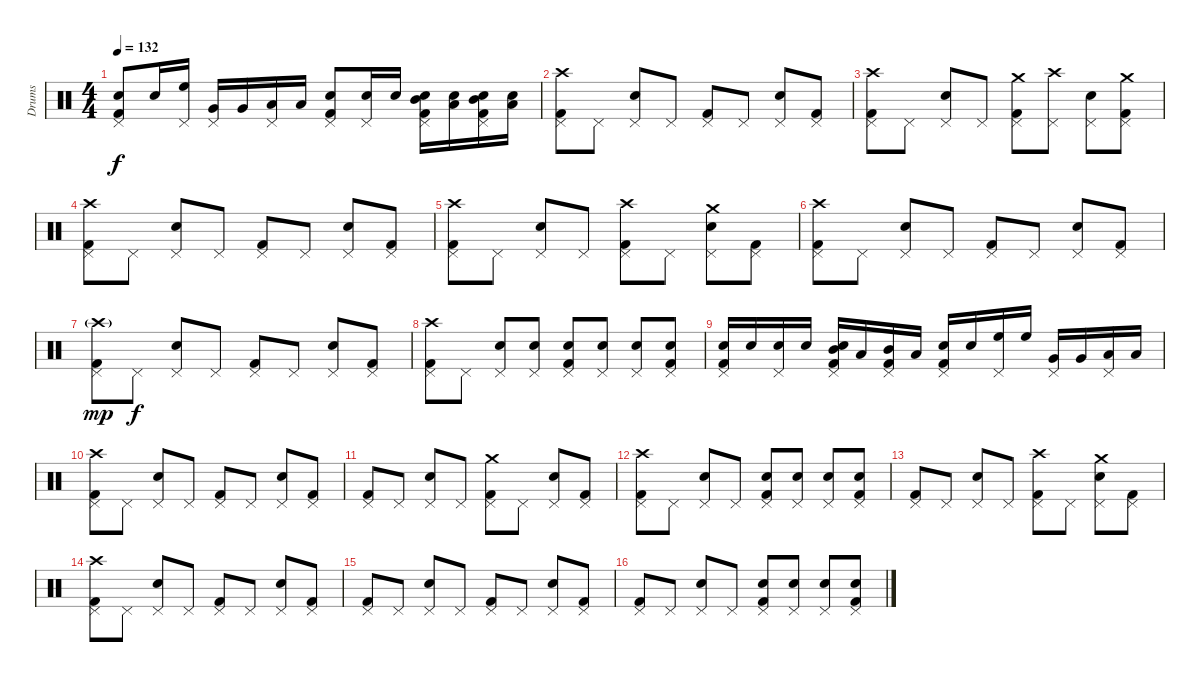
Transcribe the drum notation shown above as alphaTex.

\track ("Drums" "Drums") {instrument percussion}
\staff {score}
\articulation defaults
\ts (4 4)
\tempo 132
\clef neutral
\ks c
("Electric Snare (hit)" "Pedal Hi-Hat (hit)" "Kick (hit) 2").8{dy f} "Electric Snare (hit)".16 ("High Floor Tom (hit)" "Pedal Hi-Hat (hit)").16 ("Very Low Tom (hit)" "Pedal Hi-Hat (hit)").16 "Very Low Tom (hit)".16 ("Low Tom (hit)" "Pedal Hi-Hat (hit)").16 "Low Tom (hit)".16 ("Electric Snare (hit)" "Pedal Hi-Hat (hit)" "Kick (hit) 2").8 ("Electric Snare (hit)" "Pedal Hi-Hat (hit)").16 "Electric Snare (hit)".16 ("Electric Snare (hit)" "Mid Tom (hit)" "Pedal Hi-Hat (hit)" "Kick (hit) 2").16 ("Electric Snare (hit)" "Low Floor Tom (hit)").16 ("Electric Snare (hit)" "Mid Tom (hit)" "Pedal Hi-Hat (hit)" "Kick (hit) 2").16 ("Electric Snare (hit)" "Low Floor Tom (hit)").16 |
("Pedal Hi-Hat (hit)" "Kick (hit) 2" "Crash high (hit)").8 "Pedal Hi-Hat (hit)".8 ("Electric Snare (hit)" "Pedal Hi-Hat (hit)").8 "Pedal Hi-Hat (hit)".8 ("Pedal Hi-Hat (hit)" "Kick (hit) 2").8 "Pedal Hi-Hat (hit)".8 ("Electric Snare (hit)" "Pedal Hi-Hat (hit)").8 ("Pedal Hi-Hat (hit)" "Kick (hit) 2").8 |
("Pedal Hi-Hat (hit)" "Kick (hit) 2" "Crash high (hit)").8 "Pedal Hi-Hat (hit)".8 ("Electric Snare (hit)" "Pedal Hi-Hat (hit)").8 "Pedal Hi-Hat (hit)".8 ("Pedal Hi-Hat (hit)" "Kick (hit) 2" "Crash medium (hit)").8 ("Pedal Hi-Hat (hit)" "Crash high (hit)").8 ("Electric Snare (hit)" "Pedal Hi-Hat (hit)").8 ("Pedal Hi-Hat (hit)" "Kick (hit) 2" "Crash medium (hit)").8 |
("Pedal Hi-Hat (hit)" "Kick (hit) 2" "Crash high (hit)").8 "Pedal Hi-Hat (hit)".8 ("Electric Snare (hit)" "Pedal Hi-Hat (hit)").8 "Pedal Hi-Hat (hit)".8 ("Pedal Hi-Hat (hit)" "Kick (hit) 2").8 "Pedal Hi-Hat (hit)".8 ("Electric Snare (hit)" "Pedal Hi-Hat (hit)").8 ("Pedal Hi-Hat (hit)" "Kick (hit) 2").8 |
("Pedal Hi-Hat (hit)" "Kick (hit) 2" "Crash high (hit)").8 "Pedal Hi-Hat (hit)".8 ("Electric Snare (hit)" "Pedal Hi-Hat (hit)").8 "Pedal Hi-Hat (hit)".8 ("Pedal Hi-Hat (hit)" "Kick (hit) 2" "Crash high (hit)").8 "Pedal Hi-Hat (hit)".8 ("Electric Snare (hit)" "Pedal Hi-Hat (hit)" "Crash medium (hit)").8 ("Pedal Hi-Hat (hit)" "Kick (hit) 2").8 |
("Pedal Hi-Hat (hit)" "Kick (hit) 2" "Crash high (hit)").8 "Pedal Hi-Hat (hit)".8 ("Electric Snare (hit)" "Pedal Hi-Hat (hit)").8 "Pedal Hi-Hat (hit)".8 ("Pedal Hi-Hat (hit)" "Kick (hit) 2").8 "Pedal Hi-Hat (hit)".8 ("Electric Snare (hit)" "Pedal Hi-Hat (hit)").8 ("Pedal Hi-Hat (hit)" "Kick (hit) 2").8 |
("Pedal Hi-Hat (hit)" "Kick (hit) 2" "Crash high (hit)"{g}).8{dy mp} "Pedal Hi-Hat (hit)".8{dy f} ("Electric Snare (hit)" "Pedal Hi-Hat (hit)").8 "Pedal Hi-Hat (hit)".8 ("Pedal Hi-Hat (hit)" "Kick (hit) 2").8 "Pedal Hi-Hat (hit)".8 ("Electric Snare (hit)" "Pedal Hi-Hat (hit)").8 ("Pedal Hi-Hat (hit)" "Kick (hit) 2").8 |
("Pedal Hi-Hat (hit)" "Kick (hit) 2" "Crash high (hit)").8 "Pedal Hi-Hat (hit)".8 ("Electric Snare (hit)" "Pedal Hi-Hat (hit)").8 ("Electric Snare (hit)" "Pedal Hi-Hat (hit)").8 ("Electric Snare (hit)" "Pedal Hi-Hat (hit)" "Kick (hit) 2").8 ("Electric Snare (hit)" "Pedal Hi-Hat (hit)").8 ("Electric Snare (hit)" "Pedal Hi-Hat (hit)").8 ("Electric Snare (hit)" "Pedal Hi-Hat (hit)" "Kick (hit) 2").8 |
("Electric Snare (hit)" "Pedal Hi-Hat (hit)" "Kick (hit) 2").16 "Electric Snare (hit)".16 ("Electric Snare (hit)" "Pedal Hi-Hat (hit)").16 "Electric Snare (hit)".16 ("Electric Snare (hit)" "Mid Tom (hit)" "Pedal Hi-Hat (hit)" "Kick (hit) 2").16 "Low Floor Tom (hit)".16 ("Mid Tom (hit)" "Pedal Hi-Hat (hit)" "Kick (hit) 2").16 "Low Floor Tom (hit)".16 ("Electric Snare (hit)" "Pedal Hi-Hat (hit)" "Kick (hit) 2").16 "Electric Snare (hit)".16 ("High Floor Tom (hit)" "Pedal Hi-Hat (hit)").16 "High Floor Tom (hit)".16 ("Very Low Tom (hit)" "Pedal Hi-Hat (hit)").16 "Very Low Tom (hit)".16 ("Low Tom (hit)" "Pedal Hi-Hat (hit)").16 "Low Tom (hit)".16 |
("Pedal Hi-Hat (hit)" "Kick (hit) 2" "Crash high (hit)").8 "Pedal Hi-Hat (hit)".8 ("Electric Snare (hit)" "Pedal Hi-Hat (hit)").8 "Pedal Hi-Hat (hit)".8 ("Pedal Hi-Hat (hit)" "Kick (hit) 2").8 "Pedal Hi-Hat (hit)".8 ("Electric Snare (hit)" "Pedal Hi-Hat (hit)").8 ("Pedal Hi-Hat (hit)" "Kick (hit) 2").8 |
("Pedal Hi-Hat (hit)" "Kick (hit) 2").8 "Pedal Hi-Hat (hit)".8 ("Electric Snare (hit)" "Pedal Hi-Hat (hit)").8 "Pedal Hi-Hat (hit)".8 ("Pedal Hi-Hat (hit)" "Kick (hit) 2" "Crash medium (hit)").8 "Pedal Hi-Hat (hit)".8 ("Electric Snare (hit)" "Pedal Hi-Hat (hit)").8 ("Pedal Hi-Hat (hit)" "Kick (hit) 2").8 |
("Pedal Hi-Hat (hit)" "Kick (hit) 2" "Crash high (hit)").8 "Pedal Hi-Hat (hit)".8 ("Electric Snare (hit)" "Pedal Hi-Hat (hit)").8 "Pedal Hi-Hat (hit)".8 ("Electric Snare (hit)" "Pedal Hi-Hat (hit)" "Kick (hit) 2").8 ("Electric Snare (hit)" "Pedal Hi-Hat (hit)").8 ("Electric Snare (hit)" "Pedal Hi-Hat (hit)").8 ("Electric Snare (hit)" "Pedal Hi-Hat (hit)" "Kick (hit) 2").8 |
("Pedal Hi-Hat (hit)" "Kick (hit) 2").8 "Pedal Hi-Hat (hit)".8 ("Electric Snare (hit)" "Pedal Hi-Hat (hit)").8 "Pedal Hi-Hat (hit)".8 ("Pedal Hi-Hat (hit)" "Kick (hit) 2" "Crash high (hit)").8 "Pedal Hi-Hat (hit)".8 ("Electric Snare (hit)" "Pedal Hi-Hat (hit)" "Crash medium (hit)").8 ("Pedal Hi-Hat (hit)" "Kick (hit) 2").8 |
("Pedal Hi-Hat (hit)" "Kick (hit) 2" "Crash high (hit)").8 "Pedal Hi-Hat (hit)".8 ("Electric Snare (hit)" "Pedal Hi-Hat (hit)").8 "Pedal Hi-Hat (hit)".8 ("Pedal Hi-Hat (hit)" "Kick (hit) 2").8 "Pedal Hi-Hat (hit)".8 ("Electric Snare (hit)" "Pedal Hi-Hat (hit)").8 ("Pedal Hi-Hat (hit)" "Kick (hit) 2").8 |
("Pedal Hi-Hat (hit)" "Kick (hit) 2").8 "Pedal Hi-Hat (hit)".8 ("Electric Snare (hit)" "Pedal Hi-Hat (hit)").8 "Pedal Hi-Hat (hit)".8 ("Pedal Hi-Hat (hit)" "Kick (hit) 2").8 "Pedal Hi-Hat (hit)".8 ("Electric Snare (hit)" "Pedal Hi-Hat (hit)").8 ("Pedal Hi-Hat (hit)" "Kick (hit) 2").8 |
("Pedal Hi-Hat (hit)" "Kick (hit) 2").8 "Pedal Hi-Hat (hit)".8 ("Electric Snare (hit)" "Pedal Hi-Hat (hit)").8 "Pedal Hi-Hat (hit)".8 ("Electric Snare (hit)" "Pedal Hi-Hat (hit)" "Kick (hit) 2").8 ("Electric Snare (hit)" "Pedal Hi-Hat (hit)").8 ("Electric Snare (hit)" "Pedal Hi-Hat (hit)").8 ("Electric Snare (hit)" "Pedal Hi-Hat (hit)" "Kick (hit) 2").8
